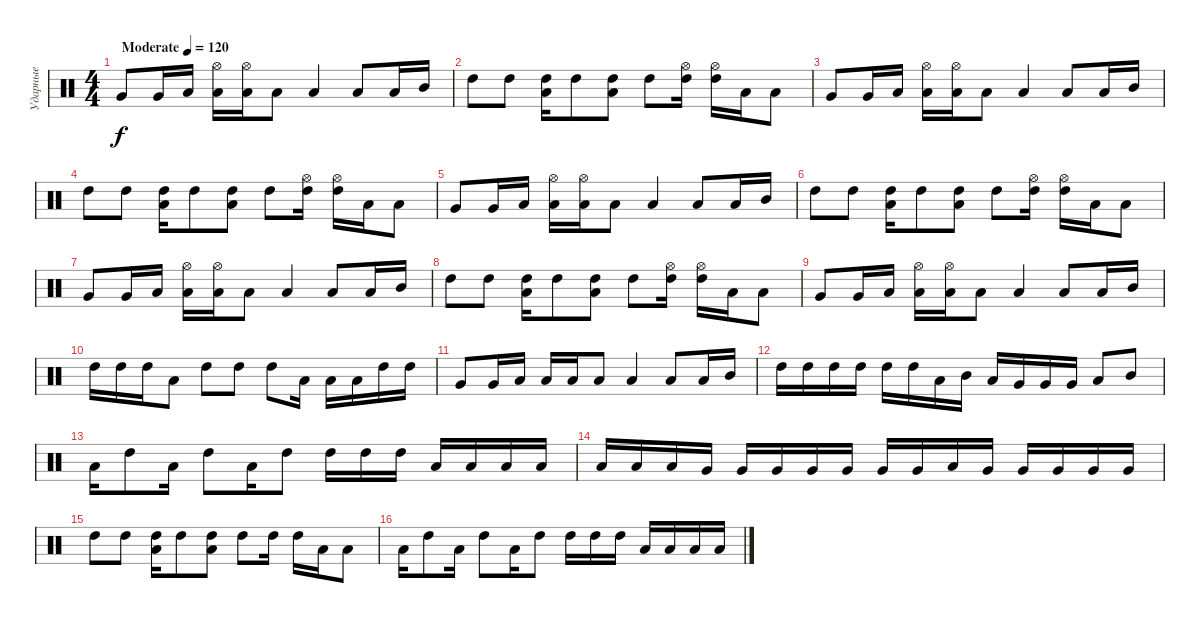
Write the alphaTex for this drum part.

\track ("Ударные" "Ударные") {instrument percussion}
\staff {score}
\articulation defaults
\ts (4 4)
\tempo (120 "Moderate")
\clef neutral
\ks c "Very Low Tom (hit)".8{dy f} "Very Low Tom (hit)".16 "Low Tom (hit)".16
("Low Floor Tom (hit)" "Hi-Hat (open)").16 ("Low Floor Tom (hit)" "Hi-Hat (open)").16 "Low Floor Tom (hit)".8 "Low Floor Tom (hit)".4 "Low Floor Tom (hit)".8 "Low Floor Tom (hit)".16 "Mid Tom (hit)".16 |
"High Tom (hit)".8 "High Tom (hit)".8 ("High Tom (hit)" "Low Floor Tom (hit)").16 "High Tom (hit)".8 ("High Tom (hit)" "Low Floor Tom (hit)").8 "High Tom (hit)".8 ("High Tom (hit)" "Hi-Hat (open)").16 ("High Tom (hit)" "Hi-Hat (open)").16 "Low Floor Tom (hit)".16 "Low Floor Tom (hit)".8 |
"Very Low Tom (hit)".8 "Very Low Tom (hit)".16 "Low Tom (hit)".16 ("Low Floor Tom (hit)" "Hi-Hat (open)").16 ("Low Floor Tom (hit)" "Hi-Hat (open)").16 "Low Floor Tom (hit)".8 "Low Floor Tom (hit)".4 "Low Floor Tom (hit)".8 "Low Floor Tom (hit)".16 "Mid Tom (hit)".16 |
"High Tom (hit)".8 "High Tom (hit)".8 ("High Tom (hit)" "Low Floor Tom (hit)").16 "High Tom (hit)".8 ("High Tom (hit)" "Low Floor Tom (hit)").8 "High Tom (hit)".8 ("High Tom (hit)" "Hi-Hat (open)").16 ("High Tom (hit)" "Hi-Hat (open)").16 "Low Floor Tom (hit)".16 "Low Floor Tom (hit)".8 |
"Very Low Tom (hit)".8 "Very Low Tom (hit)".16 "Low Tom (hit)".16 ("Low Floor Tom (hit)" "Hi-Hat (open)").16 ("Low Floor Tom (hit)" "Hi-Hat (open)").16 "Low Floor Tom (hit)".8 "Low Floor Tom (hit)".4 "Low Floor Tom (hit)".8 "Low Floor Tom (hit)".16 "Mid Tom (hit)".16 |
"High Tom (hit)".8 "High Tom (hit)".8 ("High Tom (hit)" "Low Floor Tom (hit)").16 "High Tom (hit)".8 ("High Tom (hit)" "Low Floor Tom (hit)").8 "High Tom (hit)".8 ("High Tom (hit)" "Hi-Hat (open)").16 ("High Tom (hit)" "Hi-Hat (open)").16 "Low Floor Tom (hit)".16 "Low Floor Tom (hit)".8 |
"Very Low Tom (hit)".8 "Very Low Tom (hit)".16 "Low Tom (hit)".16 ("Low Floor Tom (hit)" "Hi-Hat (open)").16 ("Low Floor Tom (hit)" "Hi-Hat (open)").16 "Low Floor Tom (hit)".8 "Low Floor Tom (hit)".4 "Low Floor Tom (hit)".8 "Low Floor Tom (hit)".16 "Mid Tom (hit)".16 |
"High Tom (hit)".8 "High Tom (hit)".8 ("High Tom (hit)" "Low Floor Tom (hit)").16 "High Tom (hit)".8 ("High Tom (hit)" "Low Floor Tom (hit)").8 "High Tom (hit)".8 ("High Tom (hit)" "Hi-Hat (open)").16 ("High Tom (hit)" "Hi-Hat (open)").16 "Low Floor Tom (hit)".16 "Low Floor Tom (hit)".8 |
"Very Low Tom (hit)".8 "Very Low Tom (hit)".16 "Low Tom (hit)".16 ("Low Floor Tom (hit)" "Hi-Hat (open)").16 ("Low Floor Tom (hit)" "Hi-Hat (open)").16 "Low Floor Tom (hit)".8 "Low Floor Tom (hit)".4 "Low Floor Tom (hit)".8 "Low Floor Tom (hit)".16 "Mid Tom (hit)".16 |
"High Tom (hit)".16 "High Tom (hit)".16 "High Tom (hit)".16 "Low Floor Tom (hit)".8 "High Tom (hit)".8 "High Tom (hit)".8 "High Tom (hit)".8 "Low Floor Tom (hit)".16 "Low Floor Tom (hit)".16 "Low Floor Tom (hit)".16 "High Tom (hit)".16 "High Tom (hit)".16 |
"Very Low Tom (hit)".8 "Very Low Tom (hit)".16 "Low Tom (hit)".16 "Low Floor Tom (hit)".16 "Low Floor Tom (hit)".16 "Low Floor Tom (hit)".8 "Low Floor Tom (hit)".4 "Low Floor Tom (hit)".8 "Low Floor Tom (hit)".16 "Mid Tom (hit)".16 |
"High Tom (hit)".16 "High Tom (hit)".16 "High Tom (hit)".16 "High Tom (hit)".16 "High Tom (hit)".16 "High Tom (hit)".16 "Low Tom (hit)".16 "Mid Tom (hit)".16 "Low Tom (hit)".16 "Very Low Tom (hit)".16 "Very Low Tom (hit)".16 "Very Low Tom (hit)".16 "Low Floor Tom (hit)".8 "Mid Tom (hit)".8 |
"Low Floor Tom (hit)".16 "High Tom (hit)".8 "Low Floor Tom (hit)".16 "High Tom (hit)".8 "Low Floor Tom (hit)".16 "High Tom (hit)".8 "High Tom (hit)".16 "High Tom (hit)".16 "High Tom (hit)".16 "Low Tom (hit)".16 "Low Tom (hit)".16 "Low Tom (hit)".16 "Low Floor Tom (hit)".16 |
"Low Floor Tom (hit)".16 "Low Floor Tom (hit)".16 "Low Floor Tom (hit)".16 "Very Low Tom (hit)".16 "Very Low Tom (hit)".16 "Very Low Tom (hit)".16 "Very Low Tom (hit)".16 "Very Low Tom (hit)".16 "Very Low Tom (hit)".16 "Very Low Tom (hit)".16 "Low Floor Tom (hit)".16 "Very Low Tom (hit)".16 "Very Low Tom (hit)".16 "Very Low Tom (hit)".16 "Very Low Tom (hit)".16 "Very Low Tom (hit)".16 |
"High Tom (hit)".8 "High Tom (hit)".8 ("High Tom (hit)" "Low Floor Tom (hit)").16 "High Tom (hit)".8 ("High Tom (hit)" "Low Floor Tom (hit)").8 "High Tom (hit)".8 "High Tom (hit)".16 "High Tom (hit)".16 "Low Floor Tom (hit)".16 "Low Floor Tom (hit)".8 |
"Low Floor Tom (hit)".16 "High Tom (hit)".8 "Low Floor Tom (hit)".16 "High Tom (hit)".8 "Low Floor Tom (hit)".16 "High Tom (hit)".8 "High Tom (hit)".16 "High Tom (hit)".16 "High Tom (hit)".16 "Low Tom (hit)".16 "Low Tom (hit)".16 "Low Tom (hit)".16 "Low Floor Tom (hit)".16
